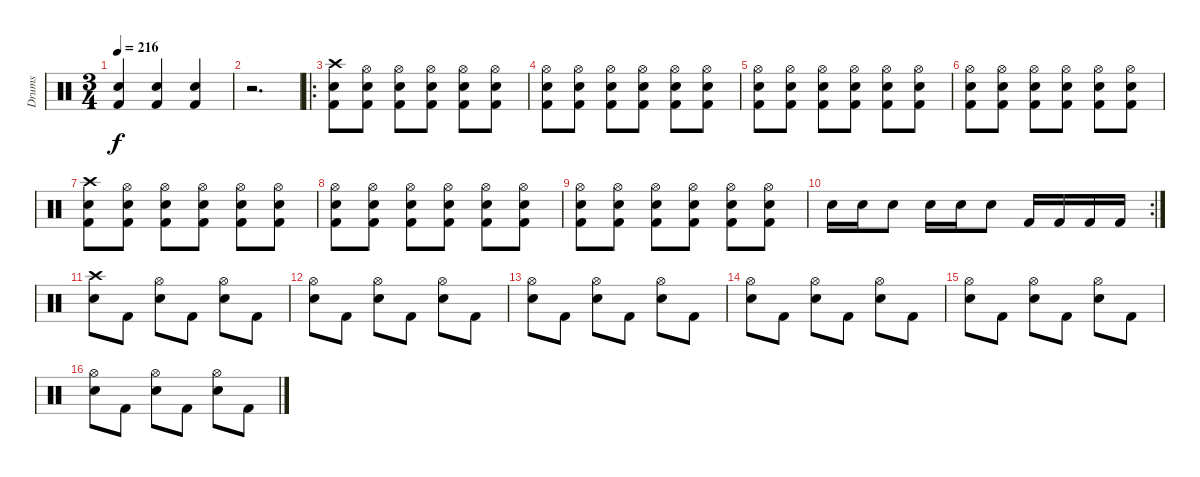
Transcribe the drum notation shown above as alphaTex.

\track ("Drums" "Drums") {instrument percussion}
\staff {score}
\articulation defaults
\ts (3 4)
\tempo 216
\clef neutral
\ks c
("Electric Snare (hit)" "Kick (hit) 2").4{dy f} ("Electric Snare (hit)" "Kick (hit) 2").4 ("Electric Snare (hit)" "Kick (hit) 2").4 |
r.2{d} |
\ro
("Crash high (hit)" "Electric Snare (hit)" "Kick (hit) 2").8 ("Hi-Hat (open)" "Electric Snare (hit)" "Kick (hit) 2").8 ("Hi-Hat (open)" "Electric Snare (hit)" "Kick (hit) 2").8 ("Hi-Hat (open)" "Electric Snare (hit)" "Kick (hit) 2").8 ("Hi-Hat (open)" "Electric Snare (hit)" "Kick (hit) 2").8 ("Hi-Hat (open)" "Electric Snare (hit)" "Kick (hit) 2").8 |
("Hi-Hat (open)" "Electric Snare (hit)" "Kick (hit) 2").8 ("Hi-Hat (open)" "Electric Snare (hit)" "Kick (hit) 2").8 ("Hi-Hat (open)" "Electric Snare (hit)" "Kick (hit) 2").8 ("Hi-Hat (open)" "Electric Snare (hit)" "Kick (hit) 2").8 ("Hi-Hat (open)" "Electric Snare (hit)" "Kick (hit) 2").8 ("Hi-Hat (open)" "Electric Snare (hit)" "Kick (hit) 2").8 |
("Hi-Hat (open)" "Electric Snare (hit)" "Kick (hit) 2").8 ("Hi-Hat (open)" "Electric Snare (hit)" "Kick (hit) 2").8 ("Hi-Hat (open)" "Electric Snare (hit)" "Kick (hit) 2").8 ("Hi-Hat (open)" "Electric Snare (hit)" "Kick (hit) 2").8 ("Hi-Hat (open)" "Electric Snare (hit)" "Kick (hit) 2").8 ("Hi-Hat (open)" "Electric Snare (hit)" "Kick (hit) 2").8 |
("Hi-Hat (open)" "Electric Snare (hit)" "Kick (hit) 2").8 ("Hi-Hat (open)" "Electric Snare (hit)" "Kick (hit) 2").8 ("Hi-Hat (open)" "Electric Snare (hit)" "Kick (hit) 2").8 ("Hi-Hat (open)" "Electric Snare (hit)" "Kick (hit) 2").8 ("Hi-Hat (open)" "Electric Snare (hit)" "Kick (hit) 2").8 ("Hi-Hat (open)" "Electric Snare (hit)" "Kick (hit) 2").8 |
("Crash high (hit)" "Electric Snare (hit)" "Kick (hit) 2").8 ("Hi-Hat (open)" "Electric Snare (hit)" "Kick (hit) 2").8 ("Hi-Hat (open)" "Electric Snare (hit)" "Kick (hit) 2").8 ("Hi-Hat (open)" "Electric Snare (hit)" "Kick (hit) 2").8 ("Hi-Hat (open)" "Electric Snare (hit)" "Kick (hit) 2").8 ("Hi-Hat (open)" "Electric Snare (hit)" "Kick (hit) 2").8 |
("Hi-Hat (open)" "Electric Snare (hit)" "Kick (hit) 2").8 ("Hi-Hat (open)" "Electric Snare (hit)" "Kick (hit) 2").8 ("Hi-Hat (open)" "Electric Snare (hit)" "Kick (hit) 2").8 ("Hi-Hat (open)" "Electric Snare (hit)" "Kick (hit) 2").8 ("Hi-Hat (open)" "Electric Snare (hit)" "Kick (hit) 2").8 ("Hi-Hat (open)" "Electric Snare (hit)" "Kick (hit) 2").8 |
("Hi-Hat (open)" "Electric Snare (hit)" "Kick (hit) 2").8 ("Hi-Hat (open)" "Electric Snare (hit)" "Kick (hit) 2").8 ("Hi-Hat (open)" "Electric Snare (hit)" "Kick (hit) 2").8 ("Hi-Hat (open)" "Electric Snare (hit)" "Kick (hit) 2").8 ("Hi-Hat (open)" "Electric Snare (hit)" "Kick (hit) 2").8 ("Hi-Hat (open)" "Electric Snare (hit)" "Kick (hit) 2").8 |
\rc 2 "Electric Snare (hit)".16 "Electric Snare (hit)".16 "Electric Snare (hit)".8 "Electric Snare (hit)".16 "Electric Snare (hit)".16 "Electric Snare (hit)".8 "Kick (hit) 2".16 "Kick (hit) 2".16 "Kick (hit) 2".16 "Kick (hit) 2".16
|
("Crash high (hit)" "Electric Snare (hit)").8 "Kick (hit) 2".8 ("Hi-Hat (open)" "Electric Snare (hit)").8 "Kick (hit) 2".8 ("Hi-Hat (open)" "Electric Snare (hit)").8 "Kick (hit) 2".8 |
("Hi-Hat (open)" "Electric Snare (hit)").8 "Kick (hit) 2".8 ("Hi-Hat (open)" "Electric Snare (hit)").8 "Kick (hit) 2".8 ("Hi-Hat (open)" "Electric Snare (hit)").8 "Kick (hit) 2".8 |
("Hi-Hat (open)" "Electric Snare (hit)").8 "Kick (hit) 2".8 ("Hi-Hat (open)" "Electric Snare (hit)").8 "Kick (hit) 2".8 ("Hi-Hat (open)" "Electric Snare (hit)").8 "Kick (hit) 2".8 |
("Hi-Hat (open)" "Electric Snare (hit)").8 "Kick (hit) 2".8 ("Hi-Hat (open)" "Electric Snare (hit)").8 "Kick (hit) 2".8 ("Hi-Hat (open)" "Electric Snare (hit)").8 "Kick (hit) 2".8 |
("Hi-Hat (open)" "Electric Snare (hit)").8 "Kick (hit) 2".8 ("Hi-Hat (open)" "Electric Snare (hit)").8 "Kick (hit) 2".8 ("Hi-Hat (open)" "Electric Snare (hit)").8 "Kick (hit) 2".8 |
("Hi-Hat (open)" "Electric Snare (hit)").8 "Kick (hit) 2".8 ("Hi-Hat (open)" "Electric Snare (hit)").8 "Kick (hit) 2".8 ("Hi-Hat (open)" "Electric Snare (hit)").8 "Kick (hit) 2".8
